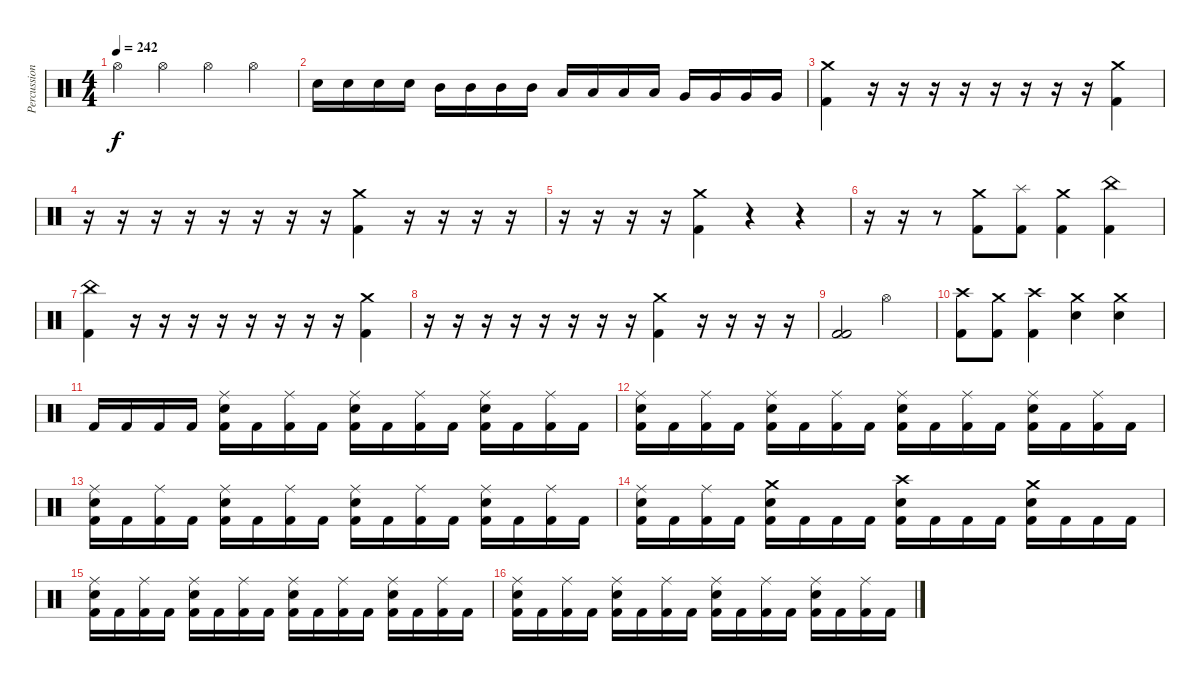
\track ("Percussion" "Percussion") {instrument percussion}
\staff {score}
\articulation defaults
\ts (4 4)
\tempo 242
\clef neutral
\ks c "Hi-Hat (open)".4{dy f} "Hi-Hat (open)".4 "Hi-Hat (open)".4 "Hi-Hat (open)".4
|
"Electric Snare (hit)".16 "Electric Snare (hit)".16 "Electric Snare (hit)".16 "Electric Snare (hit)".16 "Mid Tom (hit)".16 "Mid Tom (hit)".16 "Mid Tom (hit)".16 "Mid Tom (hit)".16 "Low Tom (hit)".16 "Low Tom (hit)".16 "Low Tom (hit)".16 "Low Tom (hit)".16 "Very Low Tom (hit)".16 "Very Low Tom (hit)".16 "Very Low Tom (hit)".16 "Very Low Tom (hit)".16 |
("Kick (hit) 2" "Crash medium (hit)").4 r.16 r.16 r.16 r.16 r.16 r.16 r.16 r.16 ("Kick (hit) 2" "Crash medium (hit)").4 |
r.16 r.16 r.16 r.16 r.16 r.16 r.16 r.16 ("Kick (hit) 2" "Crash medium (hit)").4 r.16 r.16 r.16 r.16 |
r.16 r.16 r.16 r.16 ("Kick (hit) 2" "Crash medium (hit)").4 r.4 r.4 |
r.16 r.16 r.8 ("Kick (hit) 2" "Crash medium (hit)").8 ("Kick (hit) 2" "Splash (hit)").8 ("Kick (hit) 2" "Crash medium (hit)").4 ("Kick (hit) 2" "China (hit)").4 |
("Kick (hit) 2" "China (hit)").4 r.16 r.16 r.16 r.16 r.16 r.16 r.16 r.16 ("Kick (hit) 2" "Crash medium (hit)").4 |
r.16 r.16 r.16 r.16 r.16 r.16 r.16 r.16 ("Kick (hit) 2" "Crash medium (hit)").4 r.16 r.16 r.16 r.16 |
("Kick (hit) 2" "Kick (hit) 2").2 "Hi-Hat (open)".2 |
("Kick (hit) 2" "Crash high (hit)").8 ("Kick (hit) 2" "Crash medium (hit)").8 ("Kick (hit) 2" "Crash high (hit)").4 ("Crash medium (hit)" "Electric Snare (hit)").4 ("Crash medium (hit)" "Electric Snare (hit)").4 |
"Kick (hit) 2".16 "Kick (hit) 2".16 "Kick (hit) 2".16 "Kick (hit) 2".16 ("Kick (hit) 2" "Ride (middle)" "Electric Snare (hit)").16 "Kick (hit) 2".16 ("Kick (hit) 2" "Ride (middle)").16 "Kick (hit) 2".16 ("Kick (hit) 2" "Ride (middle)" "Electric Snare (hit)").16 "Kick (hit) 2".16 ("Kick (hit) 2" "Ride (middle)").16 "Kick (hit) 2".16 ("Kick (hit) 2" "Ride (middle)" "Electric Snare (hit)").16 "Kick (hit) 2".16 ("Kick (hit) 2" "Ride (middle)").16 "Kick (hit) 2".16 |
("Kick (hit) 2" "Ride (middle)" "Electric Snare (hit)").16 "Kick (hit) 2".16 ("Kick (hit) 2" "Ride (middle)").16 "Kick (hit) 2".16 ("Kick (hit) 2" "Ride (middle)" "Electric Snare (hit)").16 "Kick (hit) 2".16 ("Kick (hit) 2" "Ride (middle)").16 "Kick (hit) 2".16 ("Kick (hit) 2" "Ride (middle)" "Electric Snare (hit)").16 "Kick (hit) 2".16 ("Kick (hit) 2" "Ride (middle)").16 "Kick (hit) 2".16 ("Kick (hit) 2" "Ride (middle)" "Electric Snare (hit)").16 "Kick (hit) 2".16 ("Kick (hit) 2" "Ride (middle)").16 "Kick (hit) 2".16 |
("Kick (hit) 2" "Ride (middle)" "Electric Snare (hit)").16 "Kick (hit) 2".16 ("Kick (hit) 2" "Ride (middle)").16 "Kick (hit) 2".16 ("Kick (hit) 2" "Ride (middle)" "Electric Snare (hit)").16 "Kick (hit) 2".16 ("Kick (hit) 2" "Ride (middle)").16 "Kick (hit) 2".16 ("Kick (hit) 2" "Ride (middle)" "Electric Snare (hit)").16 "Kick (hit) 2".16 ("Kick (hit) 2" "Ride (middle)").16 "Kick (hit) 2".16 ("Kick (hit) 2" "Ride (middle)" "Electric Snare (hit)").16 "Kick (hit) 2".16 ("Kick (hit) 2" "Ride (middle)").16 "Kick (hit) 2".16 |
("Kick (hit) 2" "Ride (middle)" "Electric Snare (hit)").16 "Kick (hit) 2".16 ("Kick (hit) 2" "Ride (middle)").16 "Kick (hit) 2".16 ("Kick (hit) 2" "Crash medium (hit)" "Electric Snare (hit)").16 "Kick (hit) 2".16 "Kick (hit) 2".16 "Kick (hit) 2".16 ("Kick (hit) 2" "Crash high (hit)" "Electric Snare (hit)").16 "Kick (hit) 2".16 "Kick (hit) 2".16 "Kick (hit) 2".16 ("Kick (hit) 2" "Crash medium (hit)" "Electric Snare (hit)").16 "Kick (hit) 2".16 "Kick (hit) 2".16 "Kick (hit) 2".16 |
("Kick (hit) 2" "Ride (middle)" "Electric Snare (hit)").16 "Kick (hit) 2".16 ("Kick (hit) 2" "Ride (middle)").16 "Kick (hit) 2".16 ("Kick (hit) 2" "Ride (middle)" "Electric Snare (hit)").16 "Kick (hit) 2".16 ("Kick (hit) 2" "Ride (middle)").16 "Kick (hit) 2".16 ("Kick (hit) 2" "Ride (middle)" "Electric Snare (hit)").16 "Kick (hit) 2".16 ("Kick (hit) 2" "Ride (middle)").16 "Kick (hit) 2".16 ("Kick (hit) 2" "Ride (middle)" "Electric Snare (hit)").16 "Kick (hit) 2".16 ("Kick (hit) 2" "Ride (middle)").16 "Kick (hit) 2".16 |
("Kick (hit) 2" "Ride (middle)" "Electric Snare (hit)").16 "Kick (hit) 2".16 ("Kick (hit) 2" "Ride (middle)").16 "Kick (hit) 2".16 ("Kick (hit) 2" "Ride (middle)" "Electric Snare (hit)").16 "Kick (hit) 2".16 ("Kick (hit) 2" "Ride (middle)").16 "Kick (hit) 2".16 ("Kick (hit) 2" "Ride (middle)" "Electric Snare (hit)").16 "Kick (hit) 2".16 ("Kick (hit) 2" "Ride (middle)").16 "Kick (hit) 2".16 ("Kick (hit) 2" "Ride (middle)" "Electric Snare (hit)").16 "Kick (hit) 2".16 ("Kick (hit) 2" "Ride (middle)").16 "Kick (hit) 2".16
